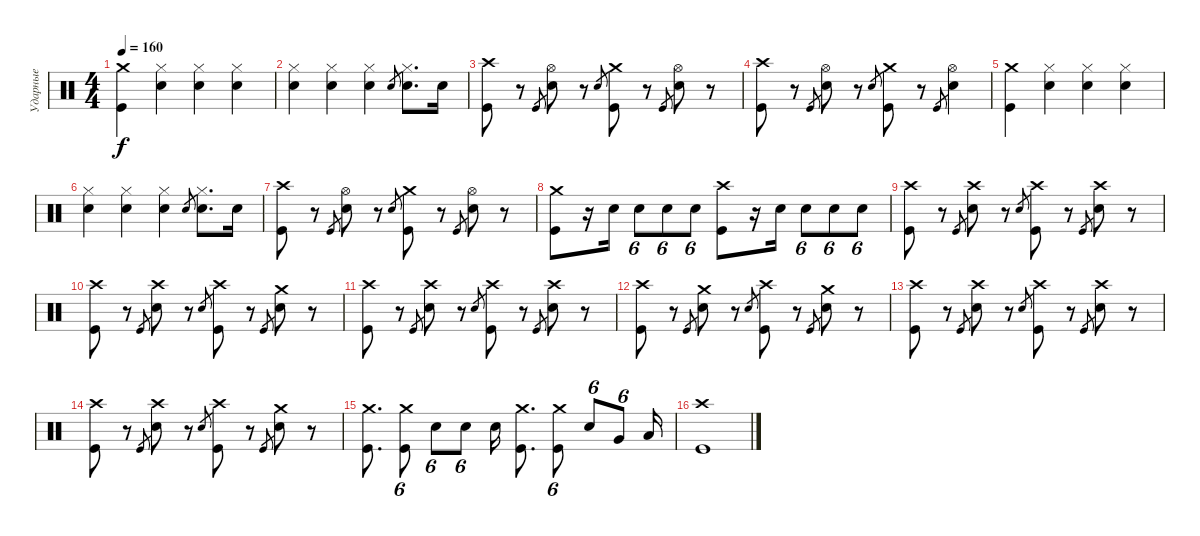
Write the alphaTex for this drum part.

\track ("Ударные" "Ударные") {instrument percussion}
\staff {score}
\articulation defaults
\ts (4 4)
\tempo 160
\clef neutral
\ks c
("Kick (hit)" "Crash medium (hit)").4{dy f} ("Electric Snare (hit)" "Hi-Hat (closed)").4 ("Electric Snare (hit)" "Hi-Hat (closed)").4 ("Electric Snare (hit)" "Hi-Hat (closed)").4 |
("Electric Snare (hit)" "Hi-Hat (closed)").4 ("Electric Snare (hit)" "Hi-Hat (closed)").4 ("Electric Snare (hit)" "Hi-Hat (closed)").4 "Electric Snare (hit)".8{gr} ("Electric Snare (hit)" "Hi-Hat (closed)").8{d} "Electric Snare (hit)".16 |
("Kick (hit)" "Crash high (hit)").8 r.8 "Kick (hit)".8{gr} ("Electric Snare (hit)" "Hi-Hat (open)").8 r.8 "Electric Snare (hit)".8{gr} ("Kick (hit)" "Crash medium (hit)").8 r.8 "Kick (hit)".8{gr} ("Electric Snare (hit)" "Hi-Hat (open)").8 r.8 |
("Kick (hit)" "Crash high (hit)").8 r.8 "Kick (hit)".8{gr} ("Electric Snare (hit)" "Hi-Hat (open)").8 r.8 "Electric Snare (hit)".8{gr} ("Kick (hit)" "Crash medium (hit)").8 r.8 "Kick (hit)".8{gr} ("Electric Snare (hit)" "Hi-Hat (open)").4 |
("Kick (hit)" "Crash medium (hit)").4 ("Electric Snare (hit)" "Hi-Hat (closed)").4 ("Electric Snare (hit)" "Hi-Hat (closed)").4 ("Electric Snare (hit)" "Hi-Hat (closed)").4 |
("Electric Snare (hit)" "Hi-Hat (closed)").4 ("Electric Snare (hit)" "Hi-Hat (closed)").4 ("Electric Snare (hit)" "Hi-Hat (closed)").4 "Electric Snare (hit)".8{gr} ("Electric Snare (hit)" "Hi-Hat (closed)").8{d} "Electric Snare (hit)".16 |
("Kick (hit)" "Crash high (hit)").8 r.8 "Kick (hit)".8{gr} ("Electric Snare (hit)" "Hi-Hat (open)").8 r.8 "Electric Snare (hit)".8{gr} ("Kick (hit)" "Crash medium (hit)").8 r.8 "Kick (hit)".8{gr} ("Electric Snare (hit)" "Hi-Hat (open)").8 r.8 |
("Kick (hit)" "Crash medium (hit)").8 r.16 "Electric Snare (hit)".16 "Electric Snare (hit)".8{tu (6 4)} "Electric Snare (hit)".8{tu (6 4)} "Electric Snare (hit)".8{tu (6 4)} ("Kick (hit)" "Crash high (hit)").8 r.16 "Electric Snare (hit)".16 "Electric Snare (hit)".8{tu (6 4)} "Electric Snare (hit)".8{tu (6 4)} "Electric Snare (hit)".8{tu (6 4)} |
("Kick (hit)" "Crash high (hit)").8 r.8 "Kick (hit)".8{gr} ("Electric Snare (hit)" "Crash high (hit)").8 r.8 "Electric Snare (hit)".8{gr} ("Kick (hit)" "Crash high (hit)").8 r.8 "Kick (hit)".8{gr} ("Electric Snare (hit)" "Crash high (hit)").8 r.8 |
("Kick (hit)" "Crash high (hit)").8 r.8 "Kick (hit)".8{gr} ("Electric Snare (hit)" "Crash high (hit)").8 r.8 "Electric Snare (hit)".8{gr} ("Kick (hit)" "Crash high (hit)").8 r.8 "Kick (hit)".8{gr} ("Electric Snare (hit)" "Crash medium (hit)").8 r.8 |
("Kick (hit)" "Crash high (hit)").8 r.8 "Kick (hit)".8{gr} ("Electric Snare (hit)" "Crash high (hit)").8 r.8 "Electric Snare (hit)".8{gr} ("Kick (hit)" "Crash high (hit)").8 r.8 "Kick (hit)".8{gr} ("Electric Snare (hit)" "Crash high (hit)").8 r.8 |
("Kick (hit)" "Crash high (hit)").8 r.8 "Kick (hit)".8{gr} ("Electric Snare (hit)" "Crash medium (hit)").8 r.8 "Electric Snare (hit)".8{gr} ("Kick (hit)" "Crash high (hit)").8 r.8 "Kick (hit)".8{gr} ("Electric Snare (hit)" "Crash medium (hit)").8 r.8 |
("Kick (hit)" "Crash high (hit)").8 r.8 "Kick (hit)".8{gr} ("Electric Snare (hit)" "Crash high (hit)").8 r.8 "Electric Snare (hit)".8{gr} ("Kick (hit)" "Crash high (hit)").8 r.8 "Kick (hit)".8{gr} ("Electric Snare (hit)" "Crash high (hit)").8 r.8 |
("Kick (hit)" "Crash high (hit)").8 r.8 "Kick (hit)".8{gr} ("Electric Snare (hit)" "Crash high (hit)").8 r.8 "Electric Snare (hit)".8{gr} ("Kick (hit)" "Crash high (hit)").8 r.8 "Kick (hit)".8{gr} ("Electric Snare (hit)" "Crash medium (hit)").8 r.8 |
("Kick (hit)" "Crash medium (hit)").8{d} ("Kick (hit)" "Crash medium (hit)").8{tu (6 4)} "Electric Snare (hit)".8{tu (6 4)} "Electric Snare (hit)".8{tu (6 4)} "Electric Snare (hit)".16 ("Kick (hit)" "Crash medium (hit)").8{d} ("Kick (hit)" "Crash medium (hit)").8{tu (6 4)} "Electric Snare (hit)".8{tu (6 4)} "Very Low Tom (hit)".8{tu (6 4)} "Low Floor Tom (hit)".16 |
("Kick (hit)" "Crash high (hit)").1
